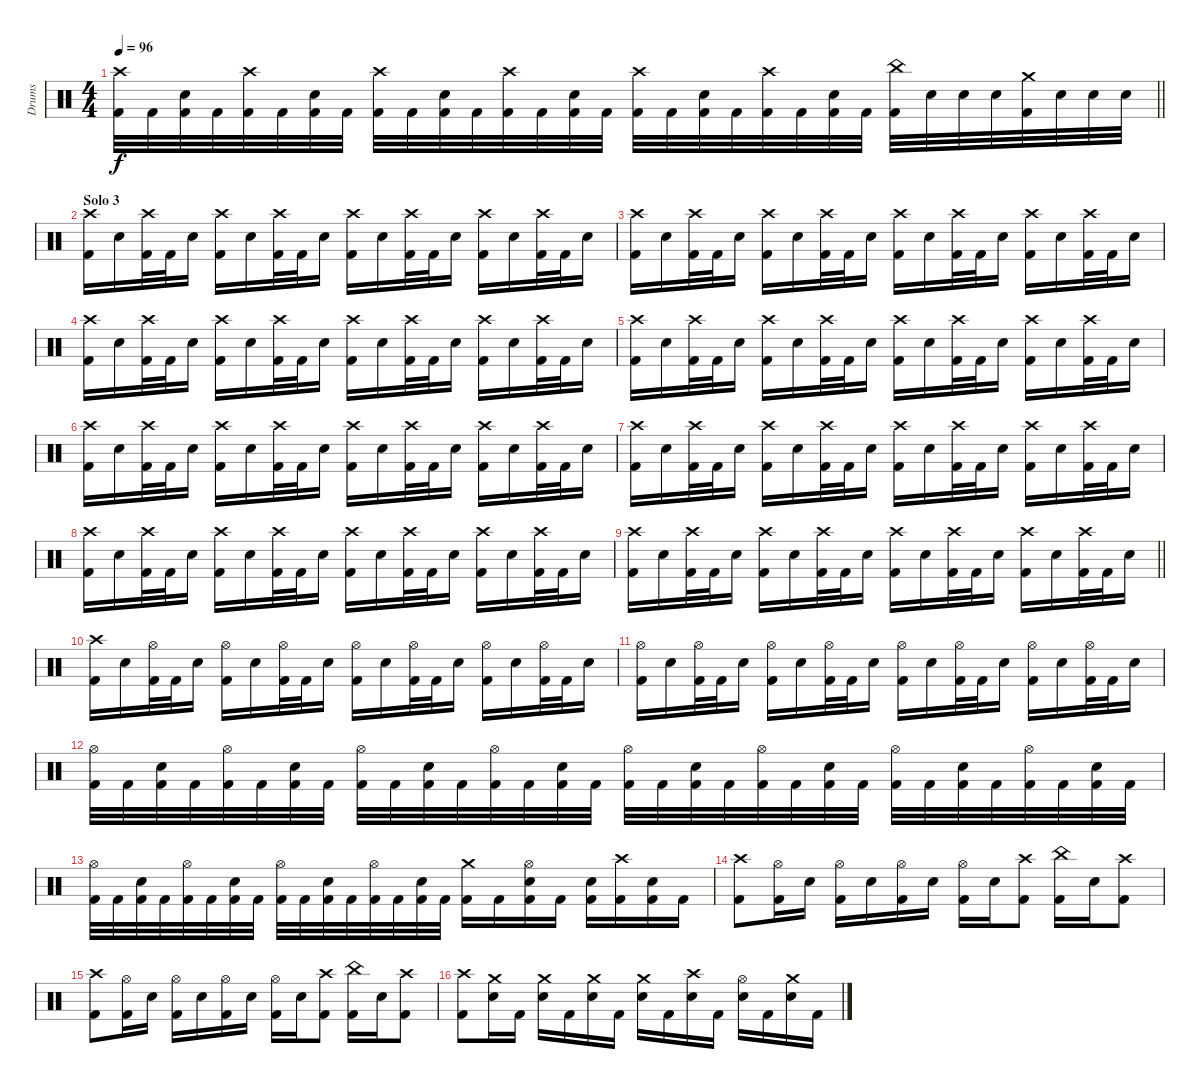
\track ("Drums" "Drums") {instrument percussion}
\staff
\articulation defaults
\ts (4 4)
\tempo 96
\clef neutral
\barLineRight lightlight
\ks c
("Crash high (hit)" "Kick (hit) 2").32{dy f} "Kick (hit) 2".32 ("Electric Snare (hit)" "Kick (hit) 2").32 "Kick (hit) 2".32 ("Crash high (hit)" "Kick (hit) 2").32 "Kick (hit) 2".32 ("Electric Snare (hit)" "Kick (hit) 2").32 "Kick (hit) 2".32 ("Crash high (hit)" "Kick (hit) 2").32 "Kick (hit) 2".32 ("Electric Snare (hit)" "Kick (hit) 2").32 "Kick (hit) 2".32 ("Crash high (hit)" "Kick (hit) 2").32 "Kick (hit) 2".32 ("Electric Snare (hit)" "Kick (hit) 2").32 "Kick (hit) 2".32 ("Crash high (hit)" "Kick (hit) 2").32 "Kick (hit) 2".32 ("Electric Snare (hit)" "Kick (hit) 2").32 "Kick (hit) 2".32 ("Crash high (hit)" "Kick (hit) 2").32 "Kick (hit) 2".32 ("Electric Snare (hit)" "Kick (hit) 2").32 "Kick (hit) 2".32 ("China (hit)" "Kick (hit) 2").32 "Electric Snare (hit)".32 "Electric Snare (hit)".32 "Electric Snare (hit)".32 ("Crash medium (hit)" "Kick (hit) 2").32 "Electric Snare (hit)".32 "Electric Snare (hit)".32 "Electric Snare (hit)".32 |
\section ("" "Solo 3")
("Crash high (hit)" "Kick (hit) 2").16 "Electric Snare (hit)".16 ("Crash high (hit)" "Kick (hit) 2").32 "Kick (hit) 2".32 "Electric Snare (hit)".16 ("Crash high (hit)" "Kick (hit) 2").16 "Electric Snare (hit)".16 ("Crash high (hit)" "Kick (hit) 2").32 "Kick (hit) 2".32 "Electric Snare (hit)".16 ("Crash high (hit)" "Kick (hit) 2").16 "Electric Snare (hit)".16 ("Crash high (hit)" "Kick (hit) 2").32 "Kick (hit) 2".32 "Electric Snare (hit)".16 ("Crash high (hit)" "Kick (hit) 2").16 "Electric Snare (hit)".16 ("Crash high (hit)" "Kick (hit) 2").32 "Kick (hit) 2".32 "Electric Snare (hit)".16 |
("Crash high (hit)" "Kick (hit) 2").16 "Electric Snare (hit)".16 ("Crash high (hit)" "Kick (hit) 2").32 "Kick (hit) 2".32 "Electric Snare (hit)".16 ("Crash high (hit)" "Kick (hit) 2").16 "Electric Snare (hit)".16 ("Crash high (hit)" "Kick (hit) 2").32 "Kick (hit) 2".32 "Electric Snare (hit)".16 ("Crash high (hit)" "Kick (hit) 2").16 "Electric Snare (hit)".16 ("Crash high (hit)" "Kick (hit) 2").32 "Kick (hit) 2".32 "Electric Snare (hit)".16 ("Crash high (hit)" "Kick (hit) 2").16 "Electric Snare (hit)".16 ("Crash high (hit)" "Kick (hit) 2").32 "Kick (hit) 2".32 "Electric Snare (hit)".16 |
("Crash high (hit)" "Kick (hit) 2").16 "Electric Snare (hit)".16 ("Crash high (hit)" "Kick (hit) 2").32 "Kick (hit) 2".32 "Electric Snare (hit)".16 ("Crash high (hit)" "Kick (hit) 2").16 "Electric Snare (hit)".16 ("Crash high (hit)" "Kick (hit) 2").32 "Kick (hit) 2".32 "Electric Snare (hit)".16 ("Crash high (hit)" "Kick (hit) 2").16 "Electric Snare (hit)".16 ("Crash high (hit)" "Kick (hit) 2").32 "Kick (hit) 2".32 "Electric Snare (hit)".16 ("Crash high (hit)" "Kick (hit) 2").16 "Electric Snare (hit)".16 ("Crash high (hit)" "Kick (hit) 2").32 "Kick (hit) 2".32 "Electric Snare (hit)".16 |
("Crash high (hit)" "Kick (hit) 2").16 "Electric Snare (hit)".16 ("Crash high (hit)" "Kick (hit) 2").32 "Kick (hit) 2".32 "Electric Snare (hit)".16 ("Crash high (hit)" "Kick (hit) 2").16 "Electric Snare (hit)".16 ("Crash high (hit)" "Kick (hit) 2").32 "Kick (hit) 2".32 "Electric Snare (hit)".16 ("Crash high (hit)" "Kick (hit) 2").16 "Electric Snare (hit)".16 ("Crash high (hit)" "Kick (hit) 2").32 "Kick (hit) 2".32 "Electric Snare (hit)".16 ("Crash high (hit)" "Kick (hit) 2").16 "Electric Snare (hit)".16 ("Crash high (hit)" "Kick (hit) 2").32 "Kick (hit) 2".32 "Electric Snare (hit)".16 |
("Crash high (hit)" "Kick (hit) 2").16 "Electric Snare (hit)".16 ("Crash high (hit)" "Kick (hit) 2").32 "Kick (hit) 2".32 "Electric Snare (hit)".16 ("Crash high (hit)" "Kick (hit) 2").16 "Electric Snare (hit)".16 ("Crash high (hit)" "Kick (hit) 2").32 "Kick (hit) 2".32 "Electric Snare (hit)".16 ("Crash high (hit)" "Kick (hit) 2").16 "Electric Snare (hit)".16 ("Crash high (hit)" "Kick (hit) 2").32 "Kick (hit) 2".32 "Electric Snare (hit)".16 ("Crash high (hit)" "Kick (hit) 2").16 "Electric Snare (hit)".16 ("Crash high (hit)" "Kick (hit) 2").32 "Kick (hit) 2".32 "Electric Snare (hit)".16 |
("Crash high (hit)" "Kick (hit) 2").16 "Electric Snare (hit)".16 ("Crash high (hit)" "Kick (hit) 2").32 "Kick (hit) 2".32 "Electric Snare (hit)".16 ("Crash high (hit)" "Kick (hit) 2").16 "Electric Snare (hit)".16 ("Crash high (hit)" "Kick (hit) 2").32 "Kick (hit) 2".32 "Electric Snare (hit)".16 ("Crash high (hit)" "Kick (hit) 2").16 "Electric Snare (hit)".16 ("Crash high (hit)" "Kick (hit) 2").32 "Kick (hit) 2".32 "Electric Snare (hit)".16 ("Crash high (hit)" "Kick (hit) 2").16 "Electric Snare (hit)".16 ("Crash high (hit)" "Kick (hit) 2").32 "Kick (hit) 2".32 "Electric Snare (hit)".16 |
("Crash high (hit)" "Kick (hit) 2").16 "Electric Snare (hit)".16 ("Crash high (hit)" "Kick (hit) 2").32 "Kick (hit) 2".32 "Electric Snare (hit)".16 ("Crash high (hit)" "Kick (hit) 2").16 "Electric Snare (hit)".16 ("Crash high (hit)" "Kick (hit) 2").32 "Kick (hit) 2".32 "Electric Snare (hit)".16 ("Crash high (hit)" "Kick (hit) 2").16 "Electric Snare (hit)".16 ("Crash high (hit)" "Kick (hit) 2").32 "Kick (hit) 2".32 "Electric Snare (hit)".16 ("Crash high (hit)" "Kick (hit) 2").16 "Electric Snare (hit)".16 ("Crash high (hit)" "Kick (hit) 2").32 "Kick (hit) 2".32 "Electric Snare (hit)".16 |
\barLineRight lightlight
("Crash high (hit)" "Kick (hit) 2").16 "Electric Snare (hit)".16 ("Crash high (hit)" "Kick (hit) 2").32 "Kick (hit) 2".32 "Electric Snare (hit)".16 ("Crash high (hit)" "Kick (hit) 2").16 "Electric Snare (hit)".16 ("Crash high (hit)" "Kick (hit) 2").32 "Kick (hit) 2".32 "Electric Snare (hit)".16 ("Crash high (hit)" "Kick (hit) 2").16 "Electric Snare (hit)".16 ("Crash high (hit)" "Kick (hit) 2").32 "Kick (hit) 2".32 "Electric Snare (hit)".16 ("Crash high (hit)" "Kick (hit) 2").16 "Electric Snare (hit)".16 ("Crash high (hit)" "Kick (hit) 2").32 "Kick (hit) 2".32 "Electric Snare (hit)".16 |
\section ("" "")
("Crash high (hit)" "Kick (hit) 2").16 "Electric Snare (hit)".16 ("Hi-Hat (open)" "Kick (hit) 2").32 "Kick (hit) 2".32 "Electric Snare (hit)".16 ("Hi-Hat (open)" "Kick (hit) 2").16 "Electric Snare (hit)".16 ("Hi-Hat (open)" "Kick (hit) 2").32 "Kick (hit) 2".32 "Electric Snare (hit)".16 ("Hi-Hat (open)" "Kick (hit) 2").16 "Electric Snare (hit)".16 ("Hi-Hat (open)" "Kick (hit) 2").32 "Kick (hit) 2".32 "Electric Snare (hit)".16 ("Hi-Hat (open)" "Kick (hit) 2").16 "Electric Snare (hit)".16 ("Hi-Hat (open)" "Kick (hit) 2").32 "Kick (hit) 2".32 "Electric Snare (hit)".16 |
("Hi-Hat (open)" "Kick (hit) 2").16 "Electric Snare (hit)".16 ("Hi-Hat (open)" "Kick (hit) 2").32 "Kick (hit) 2".32 "Electric Snare (hit)".16 ("Hi-Hat (open)" "Kick (hit) 2").16 "Electric Snare (hit)".16 ("Hi-Hat (open)" "Kick (hit) 2").32 "Kick (hit) 2".32 "Electric Snare (hit)".16 ("Hi-Hat (open)" "Kick (hit) 2").16 "Electric Snare (hit)".16 ("Hi-Hat (open)" "Kick (hit) 2").32 "Kick (hit) 2".32 "Electric Snare (hit)".16 ("Hi-Hat (open)" "Kick (hit) 2").16 "Electric Snare (hit)".16 ("Hi-Hat (open)" "Kick (hit) 2").32 "Kick (hit) 2".32 "Electric Snare (hit)".16 |
("Hi-Hat (open)" "Kick (hit) 2").32 "Kick (hit) 2".32 ("Electric Snare (hit)" "Kick (hit) 2").32 "Kick (hit) 2".32 ("Hi-Hat (open)" "Kick (hit) 2").32 "Kick (hit) 2".32 ("Electric Snare (hit)" "Kick (hit) 2").32 "Kick (hit) 2".32 ("Hi-Hat (open)" "Kick (hit) 2").32 "Kick (hit) 2".32 ("Electric Snare (hit)" "Kick (hit) 2").32 "Kick (hit) 2".32 ("Hi-Hat (open)" "Kick (hit) 2").32 "Kick (hit) 2".32 ("Electric Snare (hit)" "Kick (hit) 2").32 "Kick (hit) 2".32 ("Hi-Hat (open)" "Kick (hit) 2").32 "Kick (hit) 2".32 ("Electric Snare (hit)" "Kick (hit) 2").32 "Kick (hit) 2".32 ("Hi-Hat (open)" "Kick (hit) 2").32 "Kick (hit) 2".32 ("Electric Snare (hit)" "Kick (hit) 2").32 "Kick (hit) 2".32 ("Hi-Hat (open)" "Kick (hit) 2").32 "Kick (hit) 2".32 ("Electric Snare (hit)" "Kick (hit) 2").32 "Kick (hit) 2".32 ("Hi-Hat (open)" "Kick (hit) 2").32 "Kick (hit) 2".32 ("Electric Snare (hit)" "Kick (hit) 2").32 "Kick (hit) 2".32 |
("Hi-Hat (open)" "Kick (hit) 2").32 "Kick (hit) 2".32 ("Electric Snare (hit)" "Kick (hit) 2").32 "Kick (hit) 2".32 ("Hi-Hat (open)" "Kick (hit) 2").32 "Kick (hit) 2".32 ("Electric Snare (hit)" "Kick (hit) 2").32 "Kick (hit) 2".32 ("Hi-Hat (open)" "Kick (hit) 2").32 "Kick (hit) 2".32 ("Electric Snare (hit)" "Kick (hit) 2").32 "Kick (hit) 2".32 ("Hi-Hat (open)" "Kick (hit) 2").32 "Kick (hit) 2".32 ("Electric Snare (hit)" "Kick (hit) 2").32 "Kick (hit) 2".32 ("Crash medium (hit)" "Kick (hit) 2").16 "Kick (hit) 2".16 ("Hi-Hat (open)" "Electric Snare (hit)" "Kick (hit) 2").16 "Kick (hit) 2".16 ("Electric Snare (hit)" "Kick (hit) 2").16 ("Crash high (hit)" "Kick (hit) 2").16 ("Electric Snare (hit)" "Kick (hit) 2").16 "Kick (hit) 2".16 |
("Crash high (hit)" "Kick (hit) 2").8 ("Hi-Hat (open)" "Kick (hit) 2").16 "Electric Snare (hit)".16 ("Hi-Hat (open)" "Kick (hit) 2").16 "Electric Snare (hit)".16 ("Hi-Hat (open)" "Kick (hit) 2").16 "Electric Snare (hit)".16 ("Hi-Hat (open)" "Kick (hit) 2").16 "Electric Snare (hit)".16 ("Crash high (hit)" "Kick (hit) 2").8 ("China (hit)" "Kick (hit) 2").16 "Electric Snare (hit)".16 ("Crash high (hit)" "Kick (hit) 2").8 |
("Crash high (hit)" "Kick (hit) 2").8 ("Hi-Hat (open)" "Kick (hit) 2").16 "Electric Snare (hit)".16 ("Hi-Hat (open)" "Kick (hit) 2").16 "Electric Snare (hit)".16 ("Hi-Hat (open)" "Kick (hit) 2").16 "Electric Snare (hit)".16 ("Hi-Hat (open)" "Kick (hit) 2").16 "Electric Snare (hit)".16 ("Crash high (hit)" "Kick (hit) 2").8 ("China (hit)" "Kick (hit) 2").16 "Electric Snare (hit)".16 ("Crash high (hit)" "Kick (hit) 2").8 |
("Crash high (hit)" "Kick (hit) 2").8 ("Crash medium (hit)" "Electric Snare (hit)").16 "Kick (hit) 2".16 ("Crash medium (hit)" "Electric Snare (hit)").16 "Kick (hit) 2".16 ("Crash medium (hit)" "Electric Snare (hit)").16 "Kick (hit) 2".16 ("Crash medium (hit)" "Electric Snare (hit)").16 "Kick (hit) 2".16 ("Crash high (hit)" "Electric Snare (hit)").16 "Kick (hit) 2".16 ("Hi-Hat (open)" "Electric Snare (hit)").16 "Kick (hit) 2".16 ("Crash medium (hit)" "Electric Snare (hit)").16 "Kick (hit) 2".16
